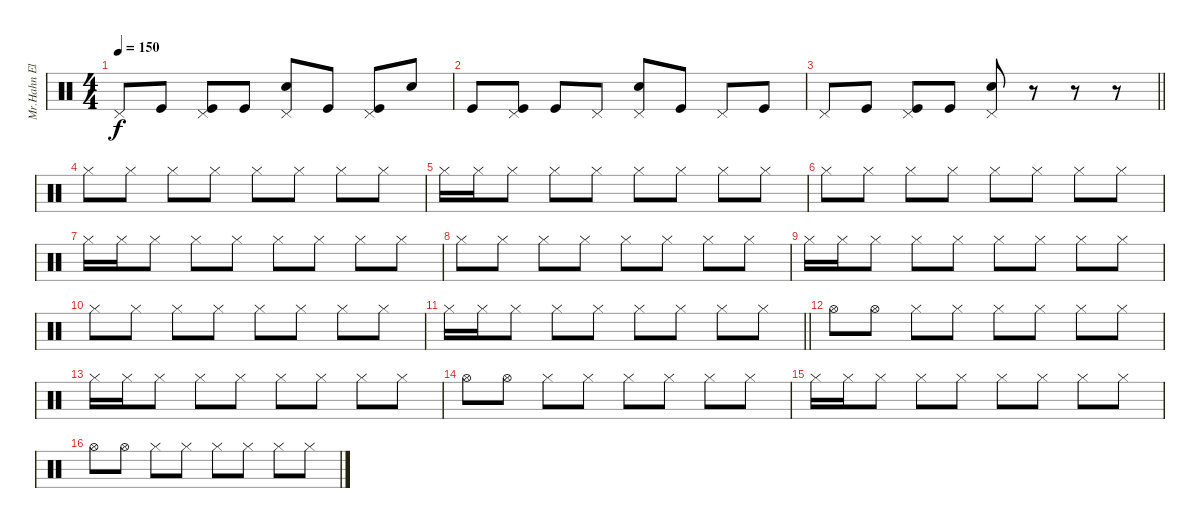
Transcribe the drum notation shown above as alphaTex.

\track ("Mr.Hahn Eletronic Drums" "Mr.Hahn El") {instrument percussion}
\staff {score}
\articulation defaults
\ts (4 4)
\tempo 150
\clef neutral
\ks c "Pedal Hi-Hat (hit)".8{dy f} "Kick (hit)".8
("Pedal Hi-Hat (hit)" "Kick (hit)").8 "Kick (hit)".8 ("Pedal Hi-Hat (hit)" "Snare (hit) 2").8 "Kick (hit)".8 ("Pedal Hi-Hat (hit)" "Kick (hit)").8 "Snare (hit) 2".8 |
"Kick (hit)".8 ("Pedal Hi-Hat (hit)" "Kick (hit)").8 "Kick (hit)".8 "Pedal Hi-Hat (hit)".8 ("Pedal Hi-Hat (hit)" "Snare (hit) 2").8 "Kick (hit)".8 "Pedal Hi-Hat (hit)".8 "Kick (hit)".8 |
\barLineRight lightlight "Pedal Hi-Hat (hit)".8 "Kick (hit)".8
("Pedal Hi-Hat (hit)" "Kick (hit)").8 "Kick (hit)".8 ("Pedal Hi-Hat (hit)" "Snare (hit) 2").8 r.8 r.8 r.8 |
"Hi-Hat (closed)".8 "Hi-Hat (closed)".8 "Hi-Hat (closed)".8 "Hi-Hat (closed)".8 "Hi-Hat (closed)".8 "Hi-Hat (closed)".8 "Hi-Hat (closed)".8 "Hi-Hat (closed)".8 |
"Hi-Hat (closed)".16 "Hi-Hat (closed)".16 "Hi-Hat (closed)".8 "Hi-Hat (closed)".8 "Hi-Hat (closed)".8 "Hi-Hat (closed)".8 "Hi-Hat (closed)".8 "Hi-Hat (closed)".8 "Hi-Hat (closed)".8 |
"Hi-Hat (closed)".8 "Hi-Hat (closed)".8 "Hi-Hat (closed)".8 "Hi-Hat (closed)".8 "Hi-Hat (closed)".8 "Hi-Hat (closed)".8 "Hi-Hat (closed)".8 "Hi-Hat (closed)".8 |
"Hi-Hat (closed)".16 "Hi-Hat (closed)".16 "Hi-Hat (closed)".8 "Hi-Hat (closed)".8 "Hi-Hat (closed)".8 "Hi-Hat (closed)".8 "Hi-Hat (closed)".8 "Hi-Hat (closed)".8 "Hi-Hat (closed)".8 |
"Hi-Hat (closed)".8 "Hi-Hat (closed)".8 "Hi-Hat (closed)".8 "Hi-Hat (closed)".8 "Hi-Hat (closed)".8 "Hi-Hat (closed)".8 "Hi-Hat (closed)".8 "Hi-Hat (closed)".8 |
"Hi-Hat (closed)".16 "Hi-Hat (closed)".16 "Hi-Hat (closed)".8 "Hi-Hat (closed)".8 "Hi-Hat (closed)".8 "Hi-Hat (closed)".8 "Hi-Hat (closed)".8 "Hi-Hat (closed)".8 "Hi-Hat (closed)".8 |
"Hi-Hat (closed)".8 "Hi-Hat (closed)".8 "Hi-Hat (closed)".8 "Hi-Hat (closed)".8 "Hi-Hat (closed)".8 "Hi-Hat (closed)".8 "Hi-Hat (closed)".8 "Hi-Hat (closed)".8 |
\barLineRight lightlight "Hi-Hat (closed)".16 "Hi-Hat (closed)".16 "Hi-Hat (closed)".8 "Hi-Hat (closed)".8 "Hi-Hat (closed)".8 "Hi-Hat (closed)".8 "Hi-Hat (closed)".8 "Hi-Hat (closed)".8 "Hi-Hat (closed)".8
|
"Hi-Hat (open)".8 "Hi-Hat (open)".8 "Hi-Hat (closed)".8 "Hi-Hat (closed)".8 "Hi-Hat (closed)".8 "Hi-Hat (closed)".8 "Hi-Hat (closed)".8 "Hi-Hat (closed)".8 |
"Hi-Hat (closed)".16 "Hi-Hat (closed)".16 "Hi-Hat (closed)".8 "Hi-Hat (closed)".8 "Hi-Hat (closed)".8 "Hi-Hat (closed)".8 "Hi-Hat (closed)".8 "Hi-Hat (closed)".8 "Hi-Hat (closed)".8 |
"Hi-Hat (open)".8 "Hi-Hat (open)".8 "Hi-Hat (closed)".8 "Hi-Hat (closed)".8 "Hi-Hat (closed)".8 "Hi-Hat (closed)".8 "Hi-Hat (closed)".8 "Hi-Hat (closed)".8 |
"Hi-Hat (closed)".16 "Hi-Hat (closed)".16 "Hi-Hat (closed)".8 "Hi-Hat (closed)".8 "Hi-Hat (closed)".8 "Hi-Hat (closed)".8 "Hi-Hat (closed)".8 "Hi-Hat (closed)".8 "Hi-Hat (closed)".8 |
"Hi-Hat (open)".8 "Hi-Hat (open)".8 "Hi-Hat (closed)".8 "Hi-Hat (closed)".8 "Hi-Hat (closed)".8 "Hi-Hat (closed)".8 "Hi-Hat (closed)".8 "Hi-Hat (closed)".8
